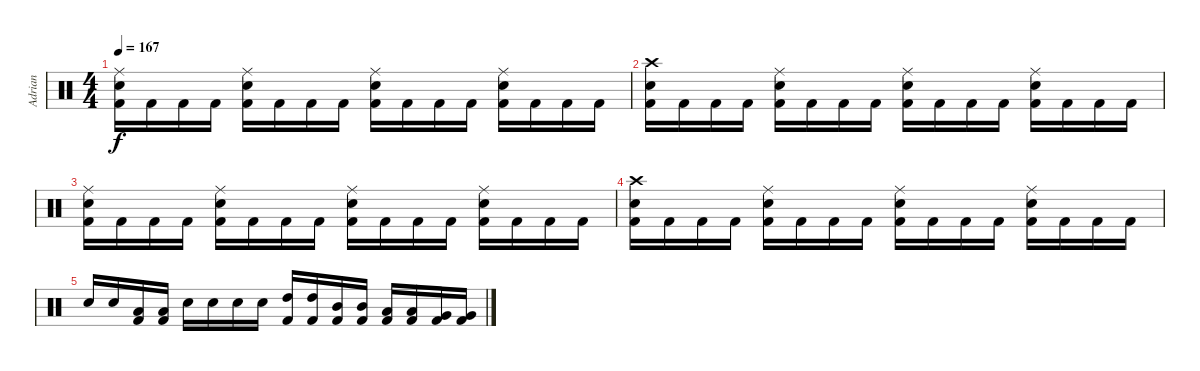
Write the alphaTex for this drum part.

\track ("Adrian" "Adrian") {instrument percussion}
\staff {score}
\articulation defaults
\ts (4 4)
\tempo 167
\clef neutral
\ks c
("Kick (hit) 2" "Snare (hit) 2" "Ride (middle)").16{dy f} "Kick (hit) 2".16 "Kick (hit) 2".16 "Kick (hit) 2".16 ("Kick (hit) 2" "Snare (hit) 2" "Ride (middle)").16 "Kick (hit) 2".16 "Kick (hit) 2".16 "Kick (hit) 2".16 ("Kick (hit) 2" "Snare (hit) 2" "Ride (middle)").16 "Kick (hit) 2".16 "Kick (hit) 2".16 "Kick (hit) 2".16 ("Kick (hit) 2" "Snare (hit) 2" "Ride (middle)").16 "Kick (hit) 2".16 "Kick (hit) 2".16 "Kick (hit) 2".16 |
("Kick (hit) 2" "Snare (hit) 2" "Crash high (hit)").16 "Kick (hit) 2".16 "Kick (hit) 2".16 "Kick (hit) 2".16 ("Kick (hit) 2" "Snare (hit) 2" "Ride (middle)").16 "Kick (hit) 2".16 "Kick (hit) 2".16 "Kick (hit) 2".16 ("Kick (hit) 2" "Snare (hit) 2" "Ride (middle)").16 "Kick (hit) 2".16 "Kick (hit) 2".16 "Kick (hit) 2".16 ("Kick (hit) 2" "Snare (hit) 2" "Ride (middle)").16 "Kick (hit) 2".16 "Kick (hit) 2".16 "Kick (hit) 2".16 |
("Kick (hit) 2" "Snare (hit) 2" "Ride (middle)").16 "Kick (hit) 2".16 "Kick (hit) 2".16 "Kick (hit) 2".16 ("Kick (hit) 2" "Snare (hit) 2" "Ride (middle)").16 "Kick (hit) 2".16 "Kick (hit) 2".16 "Kick (hit) 2".16 ("Kick (hit) 2" "Snare (hit) 2" "Ride (middle)").16 "Kick (hit) 2".16 "Kick (hit) 2".16 "Kick (hit) 2".16 ("Kick (hit) 2" "Snare (hit) 2" "Ride (middle)").16 "Kick (hit) 2".16 "Kick (hit) 2".16 "Kick (hit) 2".16 |
("Kick (hit) 2" "Snare (hit) 2" "Crash high (hit)").16 "Kick (hit) 2".16 "Kick (hit) 2".16 "Kick (hit) 2".16 ("Kick (hit) 2" "Snare (hit) 2" "Ride (middle)").16 "Kick (hit) 2".16 "Kick (hit) 2".16 "Kick (hit) 2".16 ("Kick (hit) 2" "Snare (hit) 2" "Ride (middle)").16 "Kick (hit) 2".16 "Kick (hit) 2".16 "Kick (hit) 2".16 ("Kick (hit) 2" "Snare (hit) 2" "Ride (middle)").16 "Kick (hit) 2".16 "Kick (hit) 2".16 "Kick (hit) 2".16 |
"Snare (hit) 2".16 "Snare (hit) 2".16 ("Kick (hit) 2" "Low Tom (hit)").16 ("Kick (hit) 2" "Low Tom (hit)").16 "Snare (hit) 2".16 "Snare (hit) 2".16 "Snare (hit) 2".16 "Snare (hit) 2".16 ("Kick (hit) 2" "High Tom (hit)").16 ("Kick (hit) 2" "High Tom (hit)").16 ("Kick (hit) 2" "Mid Tom (hit)").16 ("Kick (hit) 2" "Mid Tom (hit)").16 ("Kick (hit) 2" "Low Tom (hit)").16 ("Kick (hit) 2" "Low Tom (hit)").16 ("Kick (hit) 2" "Very Low Tom (hit)").16 ("Kick (hit) 2" "Very Low Tom (hit)").16
